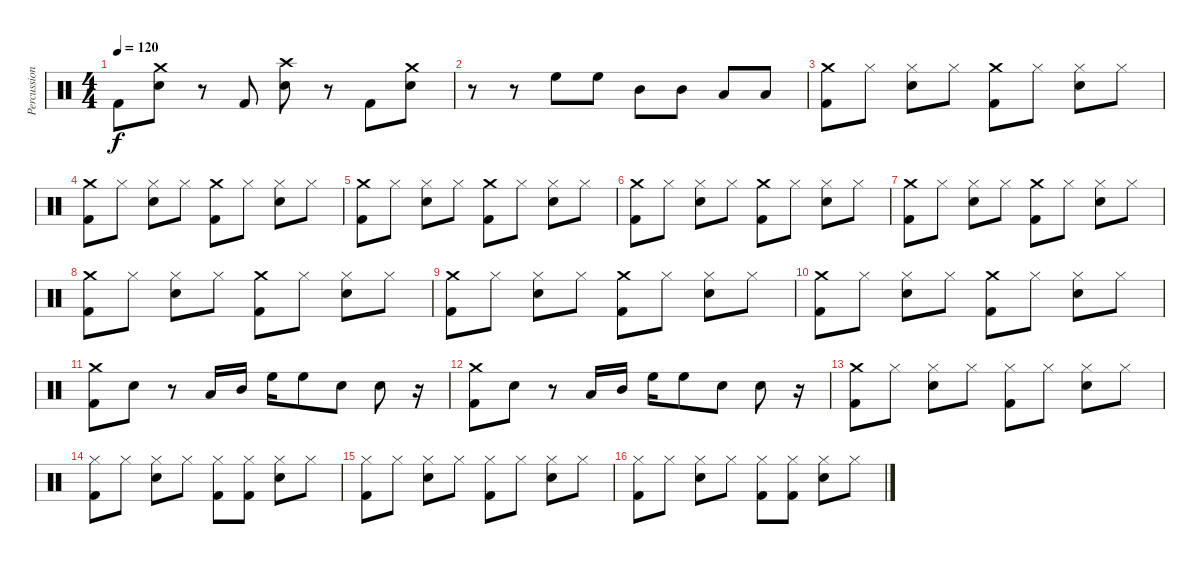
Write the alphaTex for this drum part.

\track ("Percussions" "Percussion") {instrument percussion}
\staff {score}
\articulation defaults
\ts (4 4)
\tempo 120
\clef neutral
\ks c "Kick (hit) 2".8{dy f}
("Crash medium (hit)" "Electric Snare (hit)").8 r.8 "Kick (hit) 2".8 ("Crash high (hit)" "Electric Snare (hit)").8 r.8 "Kick (hit) 2".8 ("Crash medium (hit)" "Electric Snare (hit)").8 |
r.8 r.8 "High Floor Tom (hit)".8 "High Floor Tom (hit)".8 "Mid Tom (hit)".8 "Mid Tom (hit)".8 "Low Tom (hit)".8 "Low Tom (hit)".8 |
("Crash medium (hit)" "Kick (hit) 2").8 "Hi-Hat (closed)".8 ("Hi-Hat (closed)" "Electric Snare (hit)").8 "Hi-Hat (closed)".8 ("Crash medium (hit)" "Kick (hit) 2").8 "Hi-Hat (closed)".8 ("Hi-Hat (closed)" "Electric Snare (hit)").8 "Hi-Hat (closed)".8 |
("Crash medium (hit)" "Kick (hit) 2").8 "Hi-Hat (closed)".8 ("Hi-Hat (closed)" "Electric Snare (hit)").8 "Hi-Hat (closed)".8 ("Crash medium (hit)" "Kick (hit) 2").8 "Hi-Hat (closed)".8 ("Hi-Hat (closed)" "Electric Snare (hit)").8 "Hi-Hat (closed)".8 |
("Crash medium (hit)" "Kick (hit) 2").8 "Hi-Hat (closed)".8 ("Hi-Hat (closed)" "Electric Snare (hit)").8 "Hi-Hat (closed)".8 ("Crash medium (hit)" "Kick (hit) 2").8 "Hi-Hat (closed)".8 ("Hi-Hat (closed)" "Electric Snare (hit)").8 "Hi-Hat (closed)".8 |
("Crash medium (hit)" "Kick (hit) 2").8 "Hi-Hat (closed)".8 ("Hi-Hat (closed)" "Electric Snare (hit)").8 "Hi-Hat (closed)".8 ("Crash medium (hit)" "Kick (hit) 2").8 "Hi-Hat (closed)".8 ("Hi-Hat (closed)" "Electric Snare (hit)").8 "Hi-Hat (closed)".8 |
("Crash medium (hit)" "Kick (hit) 2").8 "Hi-Hat (closed)".8 ("Hi-Hat (closed)" "Electric Snare (hit)").8 "Hi-Hat (closed)".8 ("Crash medium (hit)" "Kick (hit) 2").8 "Hi-Hat (closed)".8 ("Hi-Hat (closed)" "Electric Snare (hit)").8 "Hi-Hat (closed)".8 |
("Crash medium (hit)" "Kick (hit) 2").8 "Hi-Hat (closed)".8 ("Hi-Hat (closed)" "Electric Snare (hit)").8 "Hi-Hat (closed)".8 ("Crash medium (hit)" "Kick (hit) 2").8 "Hi-Hat (closed)".8 ("Hi-Hat (closed)" "Electric Snare (hit)").8 "Hi-Hat (closed)".8 |
("Crash medium (hit)" "Kick (hit) 2").8 "Hi-Hat (closed)".8 ("Hi-Hat (closed)" "Electric Snare (hit)").8 "Hi-Hat (closed)".8 ("Crash medium (hit)" "Kick (hit) 2").8 "Hi-Hat (closed)".8 ("Hi-Hat (closed)" "Electric Snare (hit)").8 "Hi-Hat (closed)".8 |
("Crash medium (hit)" "Kick (hit) 2").8 "Hi-Hat (closed)".8 ("Hi-Hat (closed)" "Electric Snare (hit)").8 "Hi-Hat (closed)".8 ("Crash medium (hit)" "Kick (hit) 2").8 "Hi-Hat (closed)".8 ("Hi-Hat (closed)" "Electric Snare (hit)").8 "Hi-Hat (closed)".8 |
("Crash medium (hit)" "Kick (hit) 2").8 "Electric Snare (hit)".8 r.8 "Low Tom (hit)".16 "Mid Tom (hit)".16 "High Floor Tom (hit)".16 "High Floor Tom (hit)".8 "Electric Snare (hit)".8 "Electric Snare (hit)".8 r.16 |
("Crash medium (hit)" "Kick (hit) 2").8 "Electric Snare (hit)".8 r.8 "Low Tom (hit)".16 "Mid Tom (hit)".16 "High Floor Tom (hit)".16 "High Floor Tom (hit)".8 "Electric Snare (hit)".8 "Electric Snare (hit)".8 r.16 |
("Crash medium (hit)" "Kick (hit) 2").8 "Hi-Hat (closed)".8 ("Hi-Hat (closed)" "Electric Snare (hit)").8 "Hi-Hat (closed)".8 ("Hi-Hat (closed)" "Kick (hit) 2").8 "Hi-Hat (closed)".8 ("Hi-Hat (closed)" "Electric Snare (hit)").8 "Hi-Hat (closed)".8 |
("Hi-Hat (closed)" "Kick (hit) 2").8 "Hi-Hat (closed)".8 ("Hi-Hat (closed)" "Electric Snare (hit)").8 "Hi-Hat (closed)".8 ("Hi-Hat (closed)" "Kick (hit) 2").8 ("Hi-Hat (closed)" "Kick (hit) 2").8 ("Hi-Hat (closed)" "Electric Snare (hit)").8 "Hi-Hat (closed)".8 |
("Hi-Hat (closed)" "Kick (hit) 2").8 "Hi-Hat (closed)".8 ("Hi-Hat (closed)" "Electric Snare (hit)").8 "Hi-Hat (closed)".8 ("Hi-Hat (closed)" "Kick (hit) 2").8 "Hi-Hat (closed)".8 ("Hi-Hat (closed)" "Electric Snare (hit)").8 "Hi-Hat (closed)".8 |
("Hi-Hat (closed)" "Kick (hit) 2").8 "Hi-Hat (closed)".8 ("Hi-Hat (closed)" "Electric Snare (hit)").8 "Hi-Hat (closed)".8 ("Hi-Hat (closed)" "Kick (hit) 2").8 ("Hi-Hat (closed)" "Kick (hit) 2").8 ("Hi-Hat (closed)" "Electric Snare (hit)").8 "Hi-Hat (closed)".8
